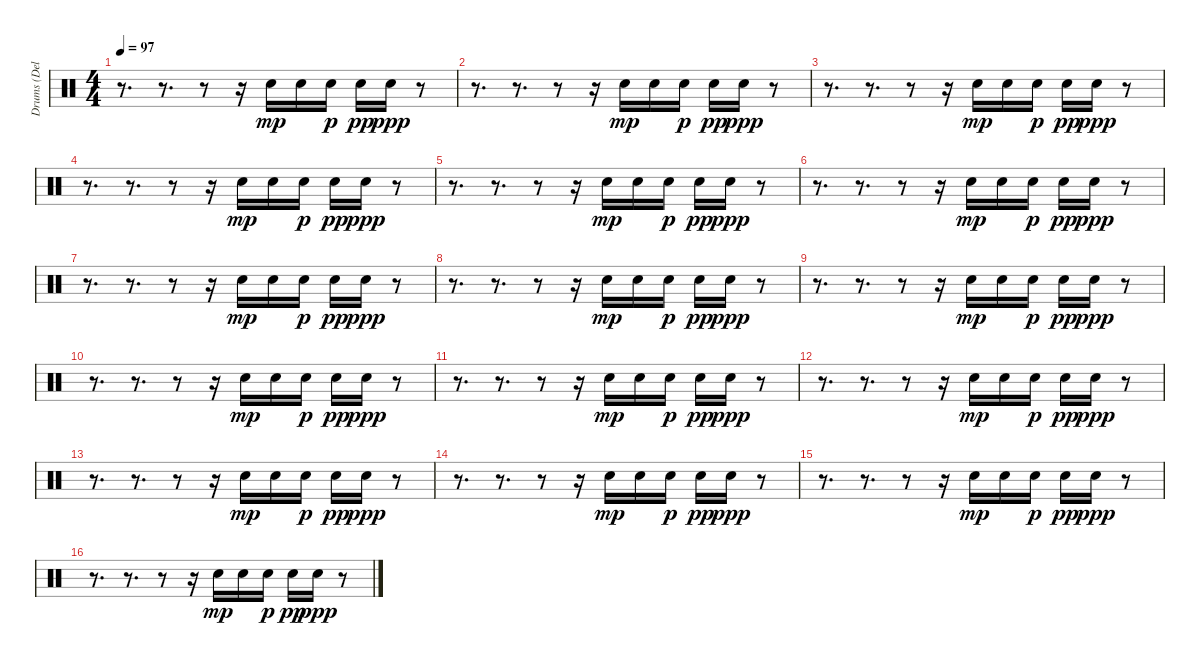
\track ("Drums (Delay)" "Drums (Del") {instrument percussion}
\staff {score}
\articulation defaults
\ts (4 4)
\tempo 97
\clef neutral
\ks c
r.8{d dy ppp} r.8{d} r.8 r.16 "Electric Snare (hit)".16{dy mp} "Electric Snare (hit)".16 "Electric Snare (hit)".16{dy p} "Electric Snare (hit)".16{dy pp} "Electric Snare (hit)".16{dy ppp} r.8 |
r.8{d} r.8{d} r.8 r.16 "Electric Snare (hit)".16{dy mp} "Electric Snare (hit)".16 "Electric Snare (hit)".16{dy p} "Electric Snare (hit)".16{dy pp} "Electric Snare (hit)".16{dy ppp} r.8 |
r.8{d} r.8{d} r.8 r.16 "Electric Snare (hit)".16{dy mp} "Electric Snare (hit)".16 "Electric Snare (hit)".16{dy p} "Electric Snare (hit)".16{dy pp} "Electric Snare (hit)".16{dy ppp} r.8 |
r.8{d} r.8{d} r.8 r.16 "Electric Snare (hit)".16{dy mp} "Electric Snare (hit)".16 "Electric Snare (hit)".16{dy p} "Electric Snare (hit)".16{dy pp} "Electric Snare (hit)".16{dy ppp} r.8 |
r.8{d} r.8{d} r.8 r.16 "Electric Snare (hit)".16{dy mp} "Electric Snare (hit)".16 "Electric Snare (hit)".16{dy p} "Electric Snare (hit)".16{dy pp} "Electric Snare (hit)".16{dy ppp} r.8 |
r.8{d} r.8{d} r.8 r.16 "Electric Snare (hit)".16{dy mp} "Electric Snare (hit)".16 "Electric Snare (hit)".16{dy p} "Electric Snare (hit)".16{dy pp} "Electric Snare (hit)".16{dy ppp} r.8 |
r.8{d} r.8{d} r.8 r.16 "Electric Snare (hit)".16{dy mp} "Electric Snare (hit)".16 "Electric Snare (hit)".16{dy p} "Electric Snare (hit)".16{dy pp} "Electric Snare (hit)".16{dy ppp} r.8 |
r.8{d} r.8{d} r.8 r.16 "Electric Snare (hit)".16{dy mp} "Electric Snare (hit)".16 "Electric Snare (hit)".16{dy p} "Electric Snare (hit)".16{dy pp} "Electric Snare (hit)".16{dy ppp} r.8 |
r.8{d} r.8{d} r.8 r.16 "Electric Snare (hit)".16{dy mp} "Electric Snare (hit)".16 "Electric Snare (hit)".16{dy p} "Electric Snare (hit)".16{dy pp} "Electric Snare (hit)".16{dy ppp} r.8 |
r.8{d} r.8{d} r.8 r.16 "Electric Snare (hit)".16{dy mp} "Electric Snare (hit)".16 "Electric Snare (hit)".16{dy p} "Electric Snare (hit)".16{dy pp} "Electric Snare (hit)".16{dy ppp} r.8 |
r.8{d} r.8{d} r.8 r.16 "Electric Snare (hit)".16{dy mp} "Electric Snare (hit)".16 "Electric Snare (hit)".16{dy p} "Electric Snare (hit)".16{dy pp} "Electric Snare (hit)".16{dy ppp} r.8 |
r.8{d} r.8{d} r.8 r.16 "Electric Snare (hit)".16{dy mp} "Electric Snare (hit)".16 "Electric Snare (hit)".16{dy p} "Electric Snare (hit)".16{dy pp} "Electric Snare (hit)".16{dy ppp} r.8 |
r.8{d} r.8{d} r.8 r.16 "Electric Snare (hit)".16{dy mp} "Electric Snare (hit)".16 "Electric Snare (hit)".16{dy p} "Electric Snare (hit)".16{dy pp} "Electric Snare (hit)".16{dy ppp} r.8 |
r.8{d} r.8{d} r.8 r.16 "Electric Snare (hit)".16{dy mp} "Electric Snare (hit)".16 "Electric Snare (hit)".16{dy p} "Electric Snare (hit)".16{dy pp} "Electric Snare (hit)".16{dy ppp} r.8 |
r.8{d} r.8{d} r.8 r.16 "Electric Snare (hit)".16{dy mp} "Electric Snare (hit)".16 "Electric Snare (hit)".16{dy p} "Electric Snare (hit)".16{dy pp} "Electric Snare (hit)".16{dy ppp} r.8 |
r.8{d} r.8{d} r.8 r.16 "Electric Snare (hit)".16{dy mp} "Electric Snare (hit)".16 "Electric Snare (hit)".16{dy p} "Electric Snare (hit)".16{dy pp} "Electric Snare (hit)".16{dy ppp} r.8
